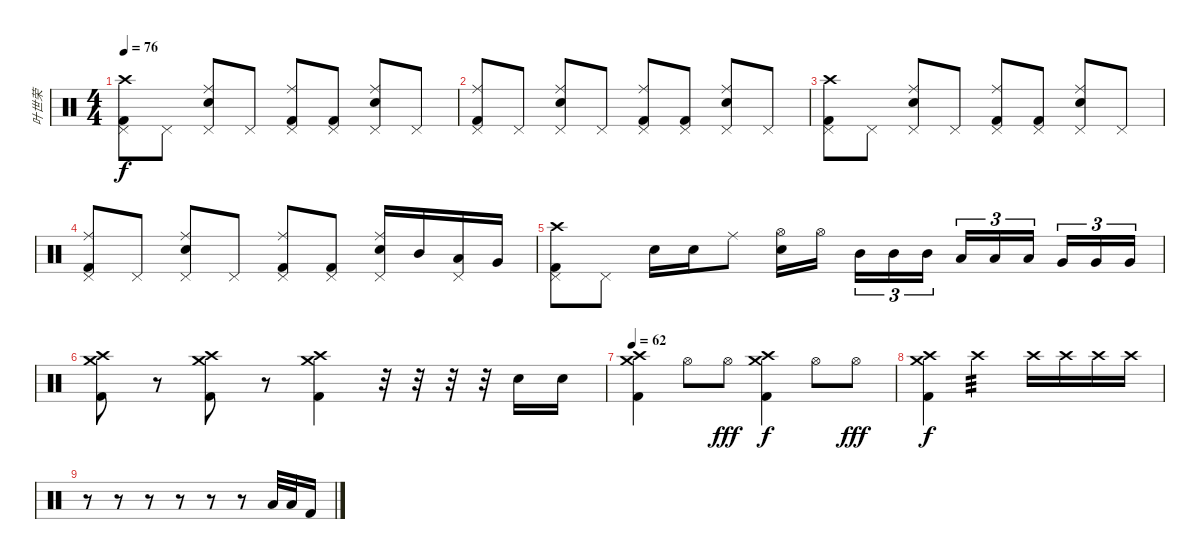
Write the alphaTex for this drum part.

\track ("叶世荣" "叶世荣") {instrument percussion}
\staff {score}
\articulation defaults
\ts (4 4)
\tempo 76
\clef neutral
\ks c
("Crash high (hit)" "Pedal Hi-Hat (hit)" "Kick (hit) 2").8{dy f} "Pedal Hi-Hat (hit)".8 ("Ride (middle)" "Pedal Hi-Hat (hit)" "Electric Snare (hit)").8 "Pedal Hi-Hat (hit)".8 ("Ride (middle)" "Pedal Hi-Hat (hit)" "Kick (hit) 2").8 ("Pedal Hi-Hat (hit)" "Kick (hit) 2").8 ("Ride (middle)" "Pedal Hi-Hat (hit)" "Electric Snare (hit)").8 "Pedal Hi-Hat (hit)".8 |
("Ride (middle)" "Pedal Hi-Hat (hit)" "Kick (hit) 2").8 "Pedal Hi-Hat (hit)".8 ("Ride (middle)" "Pedal Hi-Hat (hit)" "Electric Snare (hit)").8 "Pedal Hi-Hat (hit)".8 ("Ride (middle)" "Pedal Hi-Hat (hit)" "Kick (hit) 2").8 ("Pedal Hi-Hat (hit)" "Kick (hit) 2").8 ("Ride (middle)" "Pedal Hi-Hat (hit)" "Electric Snare (hit)").8 "Pedal Hi-Hat (hit)".8 |
("Crash high (hit)" "Pedal Hi-Hat (hit)" "Kick (hit) 2").8 "Pedal Hi-Hat (hit)".8 ("Ride (middle)" "Pedal Hi-Hat (hit)" "Electric Snare (hit)").8 "Pedal Hi-Hat (hit)".8 ("Ride (middle)" "Pedal Hi-Hat (hit)" "Kick (hit) 2").8 ("Pedal Hi-Hat (hit)" "Kick (hit) 2").8 ("Ride (middle)" "Pedal Hi-Hat (hit)" "Electric Snare (hit)").8 "Pedal Hi-Hat (hit)".8 |
("Ride (middle)" "Pedal Hi-Hat (hit)" "Kick (hit) 2").8 "Pedal Hi-Hat (hit)".8 ("Ride (middle)" "Pedal Hi-Hat (hit)" "Electric Snare (hit)").8 "Pedal Hi-Hat (hit)".8 ("Ride (middle)" "Pedal Hi-Hat (hit)" "Kick (hit) 2").8 ("Pedal Hi-Hat (hit)" "Kick (hit) 2").8 ("Ride (middle)" "Pedal Hi-Hat (hit)" "Electric Snare (hit)").16 "Mid Tom (hit)".16 ("Pedal Hi-Hat (hit)" "Low Tom (hit)").16 "Very Low Tom (hit)".16 |
("Crash high (hit)" "Pedal Hi-Hat (hit)" "Kick (hit) 2").8 "Pedal Hi-Hat (hit)".8 "Electric Snare (hit)".16 "Electric Snare (hit)".16 "Ride (middle)".8 ("Electric Snare (hit)" "Hi-Hat (open)").16 "Hi-Hat (open)".16 "Mid Tom (hit)".16{tu (3 2)} "Mid Tom (hit)".16{tu (3 2)} "Mid Tom (hit)".16{tu (3 2)} "Low Tom (hit)".16{tu (3 2)} "Low Tom (hit)".16{tu (3 2)} "Low Tom (hit)".16{tu (3 2)} "Very Low Tom (hit)".16{tu (3 2)} "Very Low Tom (hit)".16{tu (3 2)} "Very Low Tom (hit)".16{tu (3 2)} |
("Crash high (hit)" "Crash medium (hit)" "Kick (hit) 2").8 r.8 ("Crash high (hit)" "Crash medium (hit)" "Kick (hit) 2").8 r.8 ("Crash high (hit)" "Crash medium (hit)" "Kick (hit) 2").4 r.32 r.32 r.32 r.32 "Electric Snare (hit)".16 "Electric Snare (hit)".16 |
\tempo 62
("Crash high (hit)" "Crash medium (hit)" "Kick (hit) 2").4 "Hi-Hat (open)".8 "Hi-Hat (open)".8{dy fff} ("Crash high (hit)" "Crash medium (hit)" "Kick (hit) 2").4{dy f} "Hi-Hat (open)".8 "Hi-Hat (open)".8{dy fff} |
("Crash high (hit)" "Crash medium (hit)" "Kick (hit) 2").4{dy f} "Crash high (hit)".2{tp 3} "Crash high (hit)".16 "Crash high (hit)".16 "Crash high (hit)".16 "Crash high (hit)".16 |
r.8 r.8 r.8 r.8 r.8 r.8 "Low Floor Tom (hit)".32 "Low Floor Tom (hit)".32 "Kick (hit) 2".16
